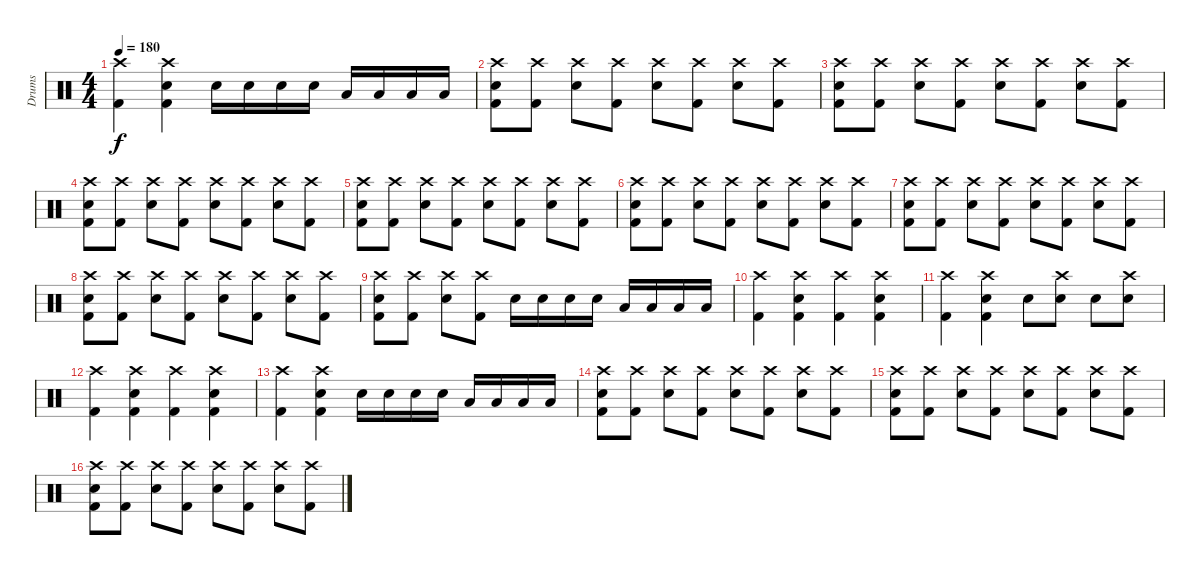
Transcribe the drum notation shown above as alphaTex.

\track ("Drums" "Drums") {instrument percussion}
\staff {score}
\articulation defaults
\ts (4 4)
\tempo 180
\clef neutral
\ks c
("Crash high (hit)" "Kick (hit) 2").4{dy f} ("Crash high (hit)" "Snare (hit) 2" "Kick (hit) 2").4 "Snare (hit) 2".16 "Snare (hit) 2".16 "Snare (hit) 2".16 "Snare (hit) 2".16 "Low Floor Tom (hit)".16 "Low Floor Tom (hit)".16 "Low Floor Tom (hit)".16 "Low Floor Tom (hit)".16 |
("Crash high (hit)" "Snare (hit) 2" "Kick (hit) 2").8 ("Crash high (hit)" "Kick (hit) 2").8 ("Crash high (hit)" "Snare (hit) 2").8 ("Crash high (hit)" "Kick (hit) 2").8 ("Crash high (hit)" "Snare (hit) 2").8 ("Crash high (hit)" "Kick (hit) 2").8 ("Crash high (hit)" "Snare (hit) 2").8 ("Crash high (hit)" "Kick (hit) 2").8 |
("Crash high (hit)" "Snare (hit) 2" "Kick (hit) 2").8 ("Crash high (hit)" "Kick (hit) 2").8 ("Crash high (hit)" "Snare (hit) 2").8 ("Crash high (hit)" "Kick (hit) 2").8 ("Crash high (hit)" "Snare (hit) 2").8 ("Crash high (hit)" "Kick (hit) 2").8 ("Crash high (hit)" "Snare (hit) 2").8 ("Crash high (hit)" "Kick (hit) 2").8 |
("Crash high (hit)" "Snare (hit) 2" "Kick (hit) 2").8 ("Crash high (hit)" "Kick (hit) 2").8 ("Crash high (hit)" "Snare (hit) 2").8 ("Crash high (hit)" "Kick (hit) 2").8 ("Crash high (hit)" "Snare (hit) 2").8 ("Crash high (hit)" "Kick (hit) 2").8 ("Crash high (hit)" "Snare (hit) 2").8 ("Crash high (hit)" "Kick (hit) 2").8 |
("Crash high (hit)" "Snare (hit) 2" "Kick (hit) 2").8 ("Crash high (hit)" "Kick (hit) 2").8 ("Crash high (hit)" "Snare (hit) 2").8 ("Crash high (hit)" "Kick (hit) 2").8 ("Crash high (hit)" "Snare (hit) 2").8 ("Crash high (hit)" "Kick (hit) 2").8 ("Crash high (hit)" "Snare (hit) 2").8 ("Crash high (hit)" "Kick (hit) 2").8 |
("Crash high (hit)" "Snare (hit) 2" "Kick (hit) 2").8 ("Crash high (hit)" "Kick (hit) 2").8 ("Crash high (hit)" "Snare (hit) 2").8 ("Crash high (hit)" "Kick (hit) 2").8 ("Crash high (hit)" "Snare (hit) 2").8 ("Crash high (hit)" "Kick (hit) 2").8 ("Crash high (hit)" "Snare (hit) 2").8 ("Crash high (hit)" "Kick (hit) 2").8 |
("Crash high (hit)" "Snare (hit) 2" "Kick (hit) 2").8 ("Crash high (hit)" "Kick (hit) 2").8 ("Crash high (hit)" "Snare (hit) 2").8 ("Crash high (hit)" "Kick (hit) 2").8 ("Crash high (hit)" "Snare (hit) 2").8 ("Crash high (hit)" "Kick (hit) 2").8 ("Crash high (hit)" "Snare (hit) 2").8 ("Crash high (hit)" "Kick (hit) 2").8 |
("Crash high (hit)" "Snare (hit) 2" "Kick (hit) 2").8 ("Crash high (hit)" "Kick (hit) 2").8 ("Crash high (hit)" "Snare (hit) 2").8 ("Crash high (hit)" "Kick (hit) 2").8 ("Crash high (hit)" "Snare (hit) 2").8 ("Crash high (hit)" "Kick (hit) 2").8 ("Crash high (hit)" "Snare (hit) 2").8 ("Crash high (hit)" "Kick (hit) 2").8 |
("Crash high (hit)" "Snare (hit) 2" "Kick (hit) 2").8 ("Crash high (hit)" "Kick (hit) 2").8 ("Crash high (hit)" "Snare (hit) 2").8 ("Crash high (hit)" "Kick (hit) 2").8 "Snare (hit) 2".16 "Snare (hit) 2".16 "Snare (hit) 2".16 "Snare (hit) 2".16 "Low Floor Tom (hit)".16 "Low Floor Tom (hit)".16 "Low Floor Tom (hit)".16 "Low Floor Tom (hit)".16 |
("Crash high (hit)" "Kick (hit) 2").4 ("Crash high (hit)" "Snare (hit) 2" "Kick (hit) 2").4 ("Crash high (hit)" "Kick (hit) 2").4 ("Crash high (hit)" "Snare (hit) 2" "Kick (hit) 2").4 |
("Crash high (hit)" "Kick (hit) 2").4 ("Crash high (hit)" "Snare (hit) 2" "Kick (hit) 2").4 "Snare (hit) 2".8 ("Crash high (hit)" "Snare (hit) 2").8 "Snare (hit) 2".8 ("Crash high (hit)" "Snare (hit) 2").8 |
("Crash high (hit)" "Kick (hit) 2").4 ("Crash high (hit)" "Snare (hit) 2" "Kick (hit) 2").4 ("Crash high (hit)" "Kick (hit) 2").4 ("Crash high (hit)" "Snare (hit) 2" "Kick (hit) 2").4 |
("Crash high (hit)" "Kick (hit) 2").4 ("Crash high (hit)" "Snare (hit) 2" "Kick (hit) 2").4 "Snare (hit) 2".16 "Snare (hit) 2".16 "Snare (hit) 2".16 "Snare (hit) 2".16 "Low Floor Tom (hit)".16 "Low Floor Tom (hit)".16 "Low Floor Tom (hit)".16 "Low Floor Tom (hit)".16 |
("Crash high (hit)" "Snare (hit) 2" "Kick (hit) 2").8 ("Crash high (hit)" "Kick (hit) 2").8 ("Crash high (hit)" "Snare (hit) 2").8 ("Crash high (hit)" "Kick (hit) 2").8 ("Crash high (hit)" "Snare (hit) 2").8 ("Crash high (hit)" "Kick (hit) 2").8 ("Crash high (hit)" "Snare (hit) 2").8 ("Crash high (hit)" "Kick (hit) 2").8 |
("Crash high (hit)" "Snare (hit) 2" "Kick (hit) 2").8 ("Crash high (hit)" "Kick (hit) 2").8 ("Crash high (hit)" "Snare (hit) 2").8 ("Crash high (hit)" "Kick (hit) 2").8 ("Crash high (hit)" "Snare (hit) 2").8 ("Crash high (hit)" "Kick (hit) 2").8 ("Crash high (hit)" "Snare (hit) 2").8 ("Crash high (hit)" "Kick (hit) 2").8 |
("Crash high (hit)" "Snare (hit) 2" "Kick (hit) 2").8 ("Crash high (hit)" "Kick (hit) 2").8 ("Crash high (hit)" "Snare (hit) 2").8 ("Crash high (hit)" "Kick (hit) 2").8 ("Crash high (hit)" "Snare (hit) 2").8 ("Crash high (hit)" "Kick (hit) 2").8 ("Crash high (hit)" "Snare (hit) 2").8 ("Crash high (hit)" "Kick (hit) 2").8
